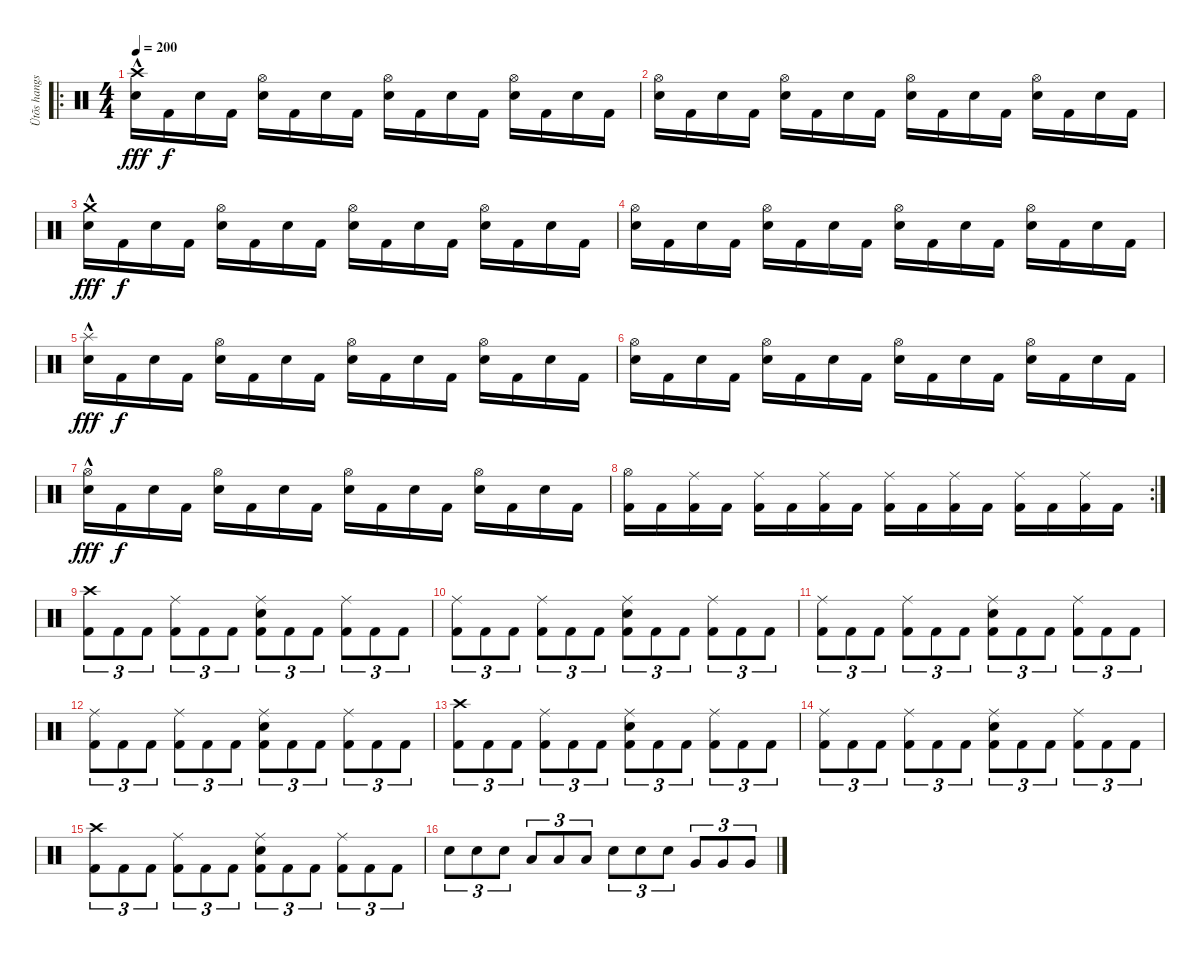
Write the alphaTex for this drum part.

\track ("Ütõs hangszer" "Ütõs hangs") {instrument percussion}
\staff {score}
\articulation defaults
\ro
\ts (4 4)
\tempo 200
\clef neutral
\ks c
("Crash high (hit)"{hac} "Snare (hit) 2").16{dy fff} "Kick (hit) 2".16{dy f} "Snare (hit) 2".16 "Kick (hit) 2".16 ("Hi-Hat (open)" "Snare (hit) 2").16 "Kick (hit) 2".16 "Snare (hit) 2".16 "Kick (hit) 2".16 ("Hi-Hat (open)" "Snare (hit) 2").16 "Kick (hit) 2".16 "Snare (hit) 2".16 "Kick (hit) 2".16 ("Hi-Hat (open)" "Snare (hit) 2").16 "Kick (hit) 2".16 "Snare (hit) 2".16 "Kick (hit) 2".16 |
("Hi-Hat (open)" "Snare (hit) 2").16 "Kick (hit) 2".16 "Snare (hit) 2".16 "Kick (hit) 2".16 ("Hi-Hat (open)" "Snare (hit) 2").16 "Kick (hit) 2".16 "Snare (hit) 2".16 "Kick (hit) 2".16 ("Hi-Hat (open)" "Snare (hit) 2").16 "Kick (hit) 2".16 "Snare (hit) 2".16 "Kick (hit) 2".16 ("Hi-Hat (open)" "Snare (hit) 2").16 "Kick (hit) 2".16 "Snare (hit) 2".16 "Kick (hit) 2".16 |
("Crash medium (hit)"{hac} "Snare (hit) 2").16{dy fff} "Kick (hit) 2".16{dy f} "Snare (hit) 2".16 "Kick (hit) 2".16 ("Hi-Hat (open)" "Snare (hit) 2").16 "Kick (hit) 2".16 "Snare (hit) 2".16 "Kick (hit) 2".16 ("Hi-Hat (open)" "Snare (hit) 2").16 "Kick (hit) 2".16 "Snare (hit) 2".16 "Kick (hit) 2".16 ("Hi-Hat (open)" "Snare (hit) 2").16 "Kick (hit) 2".16 "Snare (hit) 2".16 "Kick (hit) 2".16 |
("Hi-Hat (open)" "Snare (hit) 2").16 "Kick (hit) 2".16 "Snare (hit) 2".16 "Kick (hit) 2".16 ("Hi-Hat (open)" "Snare (hit) 2").16 "Kick (hit) 2".16 "Snare (hit) 2".16 "Kick (hit) 2".16 ("Hi-Hat (open)" "Snare (hit) 2").16 "Kick (hit) 2".16 "Snare (hit) 2".16 "Kick (hit) 2".16 ("Hi-Hat (open)" "Snare (hit) 2").16 "Kick (hit) 2".16 "Snare (hit) 2".16 "Kick (hit) 2".16 |
("Splash (hit)"{hac} "Snare (hit) 2").16{dy fff} "Kick (hit) 2".16{dy f} "Snare (hit) 2".16 "Kick (hit) 2".16 ("Hi-Hat (open)" "Snare (hit) 2").16 "Kick (hit) 2".16 "Snare (hit) 2".16 "Kick (hit) 2".16 ("Hi-Hat (open)" "Snare (hit) 2").16 "Kick (hit) 2".16 "Snare (hit) 2".16 "Kick (hit) 2".16 ("Hi-Hat (open)" "Snare (hit) 2").16 "Kick (hit) 2".16 "Snare (hit) 2".16 "Kick (hit) 2".16 |
("Hi-Hat (open)" "Snare (hit) 2").16 "Kick (hit) 2".16 "Snare (hit) 2".16 "Kick (hit) 2".16 ("Hi-Hat (open)" "Snare (hit) 2").16 "Kick (hit) 2".16 "Snare (hit) 2".16 "Kick (hit) 2".16 ("Hi-Hat (open)" "Snare (hit) 2").16 "Kick (hit) 2".16 "Snare (hit) 2".16 "Kick (hit) 2".16 ("Hi-Hat (open)" "Snare (hit) 2").16 "Kick (hit) 2".16 "Snare (hit) 2".16 "Kick (hit) 2".16 |
("Hi-Hat (open)"{hac} "Snare (hit) 2").16{dy fff} "Kick (hit) 2".16{dy f} "Snare (hit) 2".16 "Kick (hit) 2".16 ("Hi-Hat (open)" "Snare (hit) 2").16 "Kick (hit) 2".16 "Snare (hit) 2".16 "Kick (hit) 2".16 ("Hi-Hat (open)" "Snare (hit) 2").16 "Kick (hit) 2".16 "Snare (hit) 2".16 "Kick (hit) 2".16 ("Hi-Hat (open)" "Snare (hit) 2").16 "Kick (hit) 2".16 "Snare (hit) 2".16 "Kick (hit) 2".16 |
\rc 2
("Hi-Hat (open)" "Kick (hit) 2").16 "Kick (hit) 2".16 ("Ride (middle)" "Kick (hit) 2").16 "Kick (hit) 2".16 ("Ride (middle)" "Kick (hit) 2").16 "Kick (hit) 2".16 ("Ride (middle)" "Kick (hit) 2").16 "Kick (hit) 2".16 ("Ride (middle)" "Kick (hit) 2").16 "Kick (hit) 2".16 ("Ride (middle)" "Kick (hit) 2").16 "Kick (hit) 2".16 ("Ride (middle)" "Kick (hit) 2").16 "Kick (hit) 2".16 ("Ride (middle)" "Kick (hit) 2").16 "Kick (hit) 2".16 |
("Crash high (hit)" "Kick (hit) 2").8{tu (3 2)} "Kick (hit) 2".8{tu (3 2)} "Kick (hit) 2".8{tu (3 2)} ("Ride (middle)" "Kick (hit) 2").8{tu (3 2)} "Kick (hit) 2".8{tu (3 2)} "Kick (hit) 2".8{tu (3 2)} ("Ride (middle)" "Snare (hit) 2" "Kick (hit) 2").8{tu (3 2)} "Kick (hit) 2".8{tu (3 2)} "Kick (hit) 2".8{tu (3 2)} ("Ride (middle)" "Kick (hit) 2").8{tu (3 2)} "Kick (hit) 2".8{tu (3 2)} "Kick (hit) 2".8{tu (3 2)} |
("Ride (middle)" "Kick (hit) 2").8{tu (3 2)} "Kick (hit) 2".8{tu (3 2)} "Kick (hit) 2".8{tu (3 2)} ("Ride (middle)" "Kick (hit) 2").8{tu (3 2)} "Kick (hit) 2".8{tu (3 2)} "Kick (hit) 2".8{tu (3 2)} ("Ride (middle)" "Snare (hit) 2" "Kick (hit) 2").8{tu (3 2)} "Kick (hit) 2".8{tu (3 2)} "Kick (hit) 2".8{tu (3 2)} ("Ride (middle)" "Kick (hit) 2").8{tu (3 2)} "Kick (hit) 2".8{tu (3 2)} "Kick (hit) 2".8{tu (3 2)} |
("Ride (middle)" "Kick (hit) 2").8{tu (3 2)} "Kick (hit) 2".8{tu (3 2)} "Kick (hit) 2".8{tu (3 2)} ("Ride (middle)" "Kick (hit) 2").8{tu (3 2)} "Kick (hit) 2".8{tu (3 2)} "Kick (hit) 2".8{tu (3 2)} ("Ride (middle)" "Snare (hit) 2" "Kick (hit) 2").8{tu (3 2)} "Kick (hit) 2".8{tu (3 2)} "Kick (hit) 2".8{tu (3 2)} ("Ride (middle)" "Kick (hit) 2").8{tu (3 2)} "Kick (hit) 2".8{tu (3 2)} "Kick (hit) 2".8{tu (3 2)} |
("Ride (middle)" "Kick (hit) 2").8{tu (3 2)} "Kick (hit) 2".8{tu (3 2)} "Kick (hit) 2".8{tu (3 2)} ("Ride (middle)" "Kick (hit) 2").8{tu (3 2)} "Kick (hit) 2".8{tu (3 2)} "Kick (hit) 2".8{tu (3 2)} ("Ride (middle)" "Snare (hit) 2" "Kick (hit) 2").8{tu (3 2)} "Kick (hit) 2".8{tu (3 2)} "Kick (hit) 2".8{tu (3 2)} ("Ride (middle)" "Kick (hit) 2").8{tu (3 2)} "Kick (hit) 2".8{tu (3 2)} "Kick (hit) 2".8{tu (3 2)} |
("Crash high (hit)" "Kick (hit) 2").8{tu (3 2)} "Kick (hit) 2".8{tu (3 2)} "Kick (hit) 2".8{tu (3 2)} ("Ride (middle)" "Kick (hit) 2").8{tu (3 2)} "Kick (hit) 2".8{tu (3 2)} "Kick (hit) 2".8{tu (3 2)} ("Ride (middle)" "Snare (hit) 2" "Kick (hit) 2").8{tu (3 2)} "Kick (hit) 2".8{tu (3 2)} "Kick (hit) 2".8{tu (3 2)} ("Ride (middle)" "Kick (hit) 2").8{tu (3 2)} "Kick (hit) 2".8{tu (3 2)} "Kick (hit) 2".8{tu (3 2)} |
("Ride (middle)" "Kick (hit) 2").8{tu (3 2)} "Kick (hit) 2".8{tu (3 2)} "Kick (hit) 2".8{tu (3 2)} ("Ride (middle)" "Kick (hit) 2").8{tu (3 2)} "Kick (hit) 2".8{tu (3 2)} "Kick (hit) 2".8{tu (3 2)} ("Ride (middle)" "Snare (hit) 2" "Kick (hit) 2").8{tu (3 2)} "Kick (hit) 2".8{tu (3 2)} "Kick (hit) 2".8{tu (3 2)} ("Ride (middle)" "Kick (hit) 2").8{tu (3 2)} "Kick (hit) 2".8{tu (3 2)} "Kick (hit) 2".8{tu (3 2)} |
("Crash high (hit)" "Kick (hit) 2").8{tu (3 2)} "Kick (hit) 2".8{tu (3 2)} "Kick (hit) 2".8{tu (3 2)} ("Ride (middle)" "Kick (hit) 2").8{tu (3 2)} "Kick (hit) 2".8{tu (3 2)} "Kick (hit) 2".8{tu (3 2)} ("Ride (middle)" "Snare (hit) 2" "Kick (hit) 2").8{tu (3 2)} "Kick (hit) 2".8{tu (3 2)} "Kick (hit) 2".8{tu (3 2)} ("Ride (middle)" "Kick (hit) 2").8{tu (3 2)} "Kick (hit) 2".8{tu (3 2)} "Kick (hit) 2".8{tu (3 2)} |
"Electric Snare (hit)".8{tu (3 2)} "Electric Snare (hit)".8{tu (3 2)} "Electric Snare (hit)".8{tu (3 2)} "Low Tom (hit)".8{tu (3 2)} "Low Tom (hit)".8{tu (3 2)} "Low Tom (hit)".8{tu (3 2)} "Electric Snare (hit)".8{tu (3 2)} "Electric Snare (hit)".8{tu (3 2)} "Electric Snare (hit)".8{tu (3 2)} "Very Low Tom (hit)".8{tu (3 2)} "Very Low Tom (hit)".8{tu (3 2)} "Very Low Tom (hit)".8{tu (3 2)}
